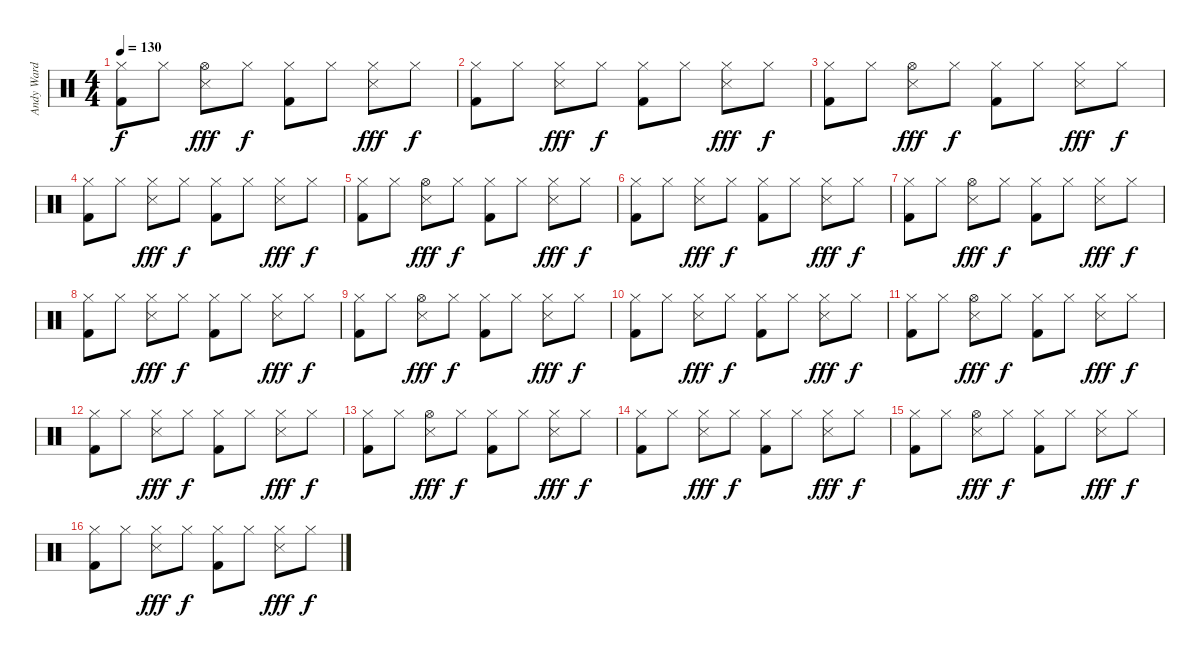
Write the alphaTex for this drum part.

\track ("Andy Ward" "Andy Ward") {instrument percussion}
\staff {score}
\articulation defaults
\ts (4 4)
\tempo 130
\clef neutral
\ks c
("Hi-Hat (closed)" "Kick (hit) 2").8{dy f} "Hi-Hat (closed)".8 ("Hi-Hat (open)" "Snare (side stick) 3").8{dy fff} "Hi-Hat (closed)".8{dy f} ("Hi-Hat (closed)" "Kick (hit) 2").8 "Hi-Hat (closed)".8 ("Hi-Hat (closed)" "Snare (side stick) 3").8{dy fff} "Hi-Hat (closed)".8{dy f} |
("Hi-Hat (closed)" "Kick (hit) 2").8 "Hi-Hat (closed)".8 ("Hi-Hat (closed)" "Snare (side stick) 3").8{dy fff} "Hi-Hat (closed)".8{dy f} ("Hi-Hat (closed)" "Kick (hit) 2").8 "Hi-Hat (closed)".8 ("Hi-Hat (closed)" "Snare (side stick) 3").8{dy fff} "Hi-Hat (closed)".8{dy f} |
("Hi-Hat (closed)" "Kick (hit) 2").8 "Hi-Hat (closed)".8 ("Hi-Hat (open)" "Snare (side stick) 3").8{dy fff} "Hi-Hat (closed)".8{dy f} ("Hi-Hat (closed)" "Kick (hit) 2").8 "Hi-Hat (closed)".8 ("Hi-Hat (closed)" "Snare (side stick) 3").8{dy fff} "Hi-Hat (closed)".8{dy f} |
("Hi-Hat (closed)" "Kick (hit) 2").8 "Hi-Hat (closed)".8 ("Hi-Hat (closed)" "Snare (side stick) 3").8{dy fff} "Hi-Hat (closed)".8{dy f} ("Hi-Hat (closed)" "Kick (hit) 2").8 "Hi-Hat (closed)".8 ("Hi-Hat (closed)" "Snare (side stick) 3").8{dy fff} "Hi-Hat (closed)".8{dy f} |
("Hi-Hat (closed)" "Kick (hit) 2").8 "Hi-Hat (closed)".8 ("Hi-Hat (open)" "Snare (side stick) 3").8{dy fff} "Hi-Hat (closed)".8{dy f} ("Hi-Hat (closed)" "Kick (hit) 2").8 "Hi-Hat (closed)".8 ("Hi-Hat (closed)" "Snare (side stick) 3").8{dy fff} "Hi-Hat (closed)".8{dy f} |
("Hi-Hat (closed)" "Kick (hit) 2").8 "Hi-Hat (closed)".8 ("Hi-Hat (closed)" "Snare (side stick) 3").8{dy fff} "Hi-Hat (closed)".8{dy f} ("Hi-Hat (closed)" "Kick (hit) 2").8 "Hi-Hat (closed)".8 ("Hi-Hat (closed)" "Snare (side stick) 3").8{dy fff} "Hi-Hat (closed)".8{dy f} |
("Hi-Hat (closed)" "Kick (hit) 2").8 "Hi-Hat (closed)".8 ("Hi-Hat (open)" "Snare (side stick) 3").8{dy fff} "Hi-Hat (closed)".8{dy f} ("Hi-Hat (closed)" "Kick (hit) 2").8 "Hi-Hat (closed)".8 ("Hi-Hat (closed)" "Snare (side stick) 3").8{dy fff} "Hi-Hat (closed)".8{dy f} |
("Hi-Hat (closed)" "Kick (hit) 2").8 "Hi-Hat (closed)".8 ("Hi-Hat (closed)" "Snare (side stick) 3").8{dy fff} "Hi-Hat (closed)".8{dy f} ("Hi-Hat (closed)" "Kick (hit) 2").8 "Hi-Hat (closed)".8 ("Hi-Hat (closed)" "Snare (side stick) 3").8{dy fff} "Hi-Hat (closed)".8{dy f} |
("Hi-Hat (closed)" "Kick (hit) 2").8 "Hi-Hat (closed)".8 ("Hi-Hat (open)" "Snare (side stick) 3").8{dy fff} "Hi-Hat (closed)".8{dy f} ("Hi-Hat (closed)" "Kick (hit) 2").8 "Hi-Hat (closed)".8 ("Hi-Hat (closed)" "Snare (side stick) 3").8{dy fff} "Hi-Hat (closed)".8{dy f} |
("Hi-Hat (closed)" "Kick (hit) 2").8 "Hi-Hat (closed)".8 ("Hi-Hat (closed)" "Snare (side stick) 3").8{dy fff} "Hi-Hat (closed)".8{dy f} ("Hi-Hat (closed)" "Kick (hit) 2").8 "Hi-Hat (closed)".8 ("Hi-Hat (closed)" "Snare (side stick) 3").8{dy fff} "Hi-Hat (closed)".8{dy f} |
("Hi-Hat (closed)" "Kick (hit) 2").8 "Hi-Hat (closed)".8 ("Hi-Hat (open)" "Snare (side stick) 3").8{dy fff} "Hi-Hat (closed)".8{dy f} ("Hi-Hat (closed)" "Kick (hit) 2").8 "Hi-Hat (closed)".8 ("Hi-Hat (closed)" "Snare (side stick) 3").8{dy fff} "Hi-Hat (closed)".8{dy f} |
("Hi-Hat (closed)" "Kick (hit) 2").8 "Hi-Hat (closed)".8 ("Hi-Hat (closed)" "Snare (side stick) 3").8{dy fff} "Hi-Hat (closed)".8{dy f} ("Hi-Hat (closed)" "Kick (hit) 2").8 "Hi-Hat (closed)".8 ("Hi-Hat (closed)" "Snare (side stick) 3").8{dy fff} "Hi-Hat (closed)".8{dy f} |
("Hi-Hat (closed)" "Kick (hit) 2").8 "Hi-Hat (closed)".8 ("Hi-Hat (open)" "Snare (side stick) 3").8{dy fff} "Hi-Hat (closed)".8{dy f} ("Hi-Hat (closed)" "Kick (hit) 2").8 "Hi-Hat (closed)".8 ("Hi-Hat (closed)" "Snare (side stick) 3").8{dy fff} "Hi-Hat (closed)".8{dy f} |
("Hi-Hat (closed)" "Kick (hit) 2").8 "Hi-Hat (closed)".8 ("Hi-Hat (closed)" "Snare (side stick) 3").8{dy fff} "Hi-Hat (closed)".8{dy f} ("Hi-Hat (closed)" "Kick (hit) 2").8 "Hi-Hat (closed)".8 ("Hi-Hat (closed)" "Snare (side stick) 3").8{dy fff} "Hi-Hat (closed)".8{dy f} |
("Hi-Hat (closed)" "Kick (hit) 2").8 "Hi-Hat (closed)".8 ("Hi-Hat (open)" "Snare (side stick) 3").8{dy fff} "Hi-Hat (closed)".8{dy f} ("Hi-Hat (closed)" "Kick (hit) 2").8 "Hi-Hat (closed)".8 ("Hi-Hat (closed)" "Snare (side stick) 3").8{dy fff} "Hi-Hat (closed)".8{dy f} |
("Hi-Hat (closed)" "Kick (hit) 2").8 "Hi-Hat (closed)".8 ("Hi-Hat (closed)" "Snare (side stick) 3").8{dy fff} "Hi-Hat (closed)".8{dy f} ("Hi-Hat (closed)" "Kick (hit) 2").8 "Hi-Hat (closed)".8 ("Hi-Hat (closed)" "Snare (side stick) 3").8{dy fff} "Hi-Hat (closed)".8{dy f}
